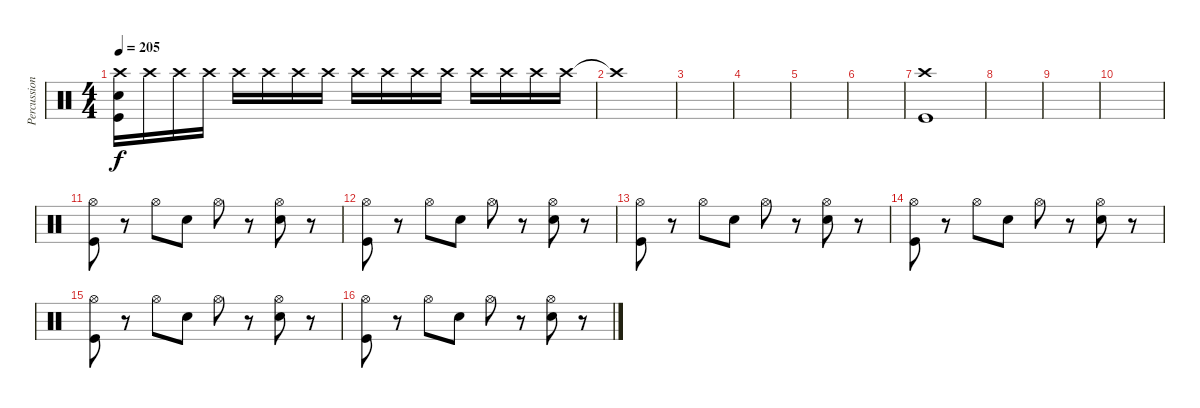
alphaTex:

\track ("Percussion" "Percussion") {instrument percussion}
\staff {score}
\articulation defaults
\ts (4 4)
\tempo 205
\clef neutral
\ks c
("Kick (hit)" "Snare (hit) 2" "Crash high (hit)").16{dy f} "Crash high (hit)".16 "Crash high (hit)".16 "Crash high (hit)".16 "Crash high (hit)".16 "Crash high (hit)".16 "Crash high (hit)".16 "Crash high (hit)".16 "Crash high (hit)".16 "Crash high (hit)".16 "Crash high (hit)".16 "Crash high (hit)".16 "Crash high (hit)".16 "Crash high (hit)".16 "Crash high (hit)".16 "Crash high (hit)".16 |
"Crash high (hit)"{t}.1 |
|
|
|
|
("Kick (hit)" "Crash high (hit)").1 |
|
|
|
("Hi-Hat (open)" "Kick (hit)").8 r.8 "Hi-Hat (open)".8 "Snare (hit) 2".8 "Hi-Hat (open)".8 r.8 ("Hi-Hat (open)" "Snare (hit) 2").8 r.8 |
("Hi-Hat (open)" "Kick (hit)").8 r.8 "Hi-Hat (open)".8 "Snare (hit) 2".8 "Hi-Hat (open)".8 r.8 ("Hi-Hat (open)" "Snare (hit) 2").8 r.8 |
("Hi-Hat (open)" "Kick (hit)").8 r.8 "Hi-Hat (open)".8 "Snare (hit) 2".8 "Hi-Hat (open)".8 r.8 ("Hi-Hat (open)" "Snare (hit) 2").8 r.8 |
("Hi-Hat (open)" "Kick (hit)").8 r.8 "Hi-Hat (open)".8 "Snare (hit) 2".8 "Hi-Hat (open)".8 r.8 ("Hi-Hat (open)" "Snare (hit) 2").8 r.8 |
("Hi-Hat (open)" "Kick (hit)").8 r.8 "Hi-Hat (open)".8 "Snare (hit) 2".8 "Hi-Hat (open)".8 r.8 ("Hi-Hat (open)" "Snare (hit) 2").8 r.8 |
("Hi-Hat (open)" "Kick (hit)").8 r.8 "Hi-Hat (open)".8 "Snare (hit) 2".8 "Hi-Hat (open)".8 r.8 ("Hi-Hat (open)" "Snare (hit) 2").8 r.8
